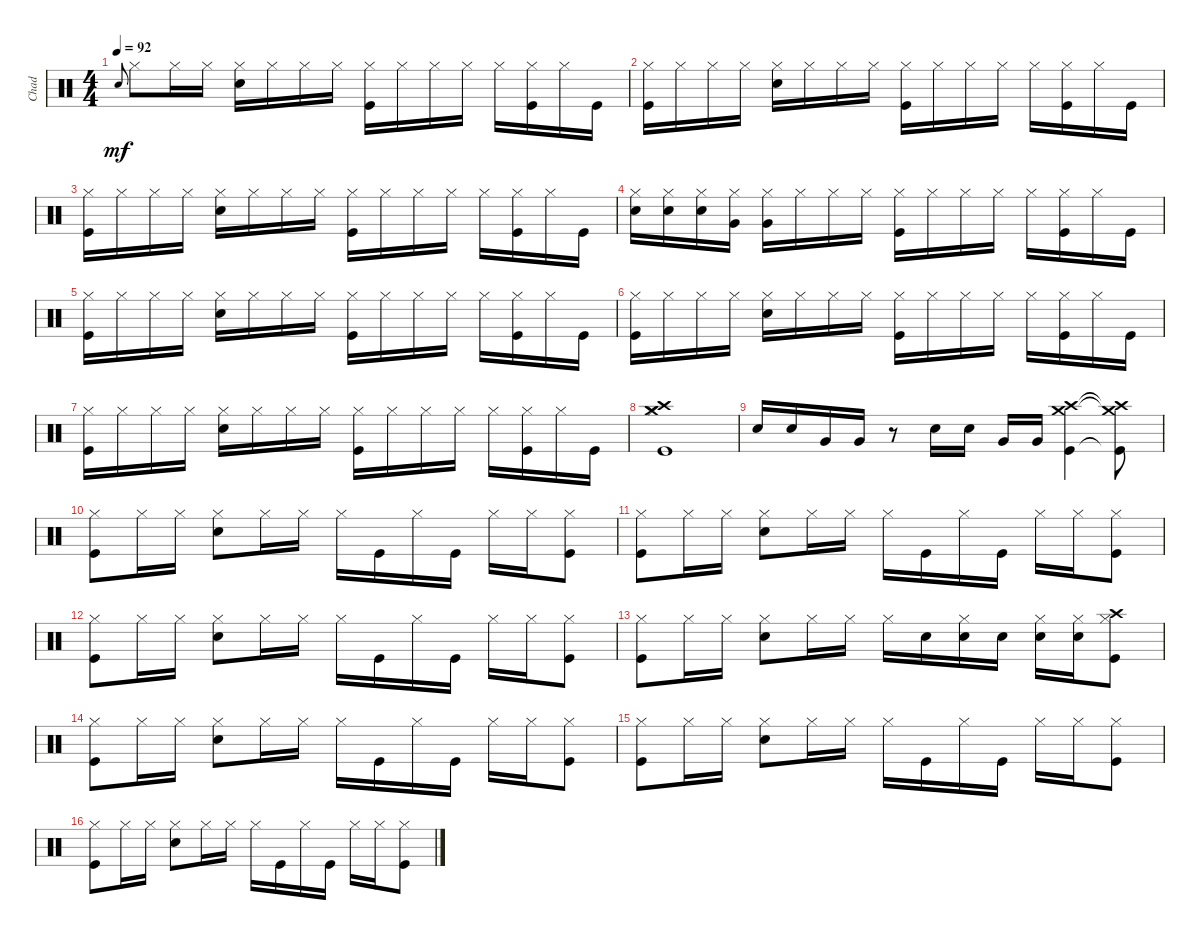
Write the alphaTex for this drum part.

\track ("Chad" "Chad") {instrument percussion}
\staff {score}
\articulation defaults
\ts (4 4)
\tempo 92
\clef neutral
\ks c "Snare (hit)".8{gr onbeat dy mf} "Hi-Hat (closed)".8 "Hi-Hat (closed)".16 "Hi-Hat (closed)".16
("Snare (hit) 2" "Hi-Hat (closed)").16 "Hi-Hat (closed)".16 "Hi-Hat (closed)".16 "Hi-Hat (closed)".16 ("Kick (hit)" "Hi-Hat (closed)").16 "Hi-Hat (closed)".16 "Hi-Hat (closed)".16 "Hi-Hat (closed)".16 "Hi-Hat (closed)".16 ("Kick (hit)" "Hi-Hat (closed)").16 "Hi-Hat (closed)".16 "Kick (hit)".16 |
("Kick (hit)" "Hi-Hat (closed)").16 "Hi-Hat (closed)".16 "Hi-Hat (closed)".16 "Hi-Hat (closed)".16 ("Snare (hit) 2" "Hi-Hat (closed)").16 "Hi-Hat (closed)".16 "Hi-Hat (closed)".16 "Hi-Hat (closed)".16 ("Kick (hit)" "Hi-Hat (closed)").16 "Hi-Hat (closed)".16 "Hi-Hat (closed)".16 "Hi-Hat (closed)".16 "Hi-Hat (closed)".16 ("Kick (hit)" "Hi-Hat (closed)").16 "Hi-Hat (closed)".16 "Kick (hit)".16 |
("Kick (hit)" "Hi-Hat (closed)").16 "Hi-Hat (closed)".16 "Hi-Hat (closed)".16 "Hi-Hat (closed)".16 ("Snare (hit) 2" "Hi-Hat (closed)").16 "Hi-Hat (closed)".16 "Hi-Hat (closed)".16 "Hi-Hat (closed)".16 ("Kick (hit)" "Hi-Hat (closed)").16 "Hi-Hat (closed)".16 "Hi-Hat (closed)".16 "Hi-Hat (closed)".16 "Hi-Hat (closed)".16 ("Kick (hit)" "Hi-Hat (closed)").16 "Hi-Hat (closed)".16 "Kick (hit)".16 |
("Hi-Hat (closed)" "Snare (hit) 2").16 ("Hi-Hat (closed)" "Snare (hit) 2").16 ("Hi-Hat (closed)" "Snare (hit) 2").16 ("Hi-Hat (closed)" "Very Low Tom (hit)").16 ("Hi-Hat (closed)" "Very Low Tom (hit)").16 "Hi-Hat (closed)".16 "Hi-Hat (closed)".16 "Hi-Hat (closed)".16 ("Kick (hit)" "Hi-Hat (closed)").16 "Hi-Hat (closed)".16 "Hi-Hat (closed)".16 "Hi-Hat (closed)".16 "Hi-Hat (closed)".16 ("Kick (hit)" "Hi-Hat (closed)").16 "Hi-Hat (closed)".16 "Kick (hit)".16 |
("Kick (hit)" "Hi-Hat (closed)").16 "Hi-Hat (closed)".16 "Hi-Hat (closed)".16 "Hi-Hat (closed)".16 ("Snare (hit) 2" "Hi-Hat (closed)").16 "Hi-Hat (closed)".16 "Hi-Hat (closed)".16 "Hi-Hat (closed)".16 ("Kick (hit)" "Hi-Hat (closed)").16 "Hi-Hat (closed)".16 "Hi-Hat (closed)".16 "Hi-Hat (closed)".16 "Hi-Hat (closed)".16 ("Kick (hit)" "Hi-Hat (closed)").16 "Hi-Hat (closed)".16 "Kick (hit)".16 |
("Kick (hit)" "Hi-Hat (closed)").16 "Hi-Hat (closed)".16 "Hi-Hat (closed)".16 "Hi-Hat (closed)".16 ("Snare (hit) 2" "Hi-Hat (closed)").16 "Hi-Hat (closed)".16 "Hi-Hat (closed)".16 "Hi-Hat (closed)".16 ("Kick (hit)" "Hi-Hat (closed)").16 "Hi-Hat (closed)".16 "Hi-Hat (closed)".16 "Hi-Hat (closed)".16 "Hi-Hat (closed)".16 ("Kick (hit)" "Hi-Hat (closed)").16 "Hi-Hat (closed)".16 "Kick (hit)".16 |
("Kick (hit)" "Hi-Hat (closed)").16 "Hi-Hat (closed)".16 "Hi-Hat (closed)".16 "Hi-Hat (closed)".16 ("Snare (hit) 2" "Hi-Hat (closed)").16 "Hi-Hat (closed)".16 "Hi-Hat (closed)".16 "Hi-Hat (closed)".16 ("Kick (hit)" "Hi-Hat (closed)").16 "Hi-Hat (closed)".16 "Hi-Hat (closed)".16 "Hi-Hat (closed)".16 "Hi-Hat (closed)".16 ("Kick (hit)" "Hi-Hat (closed)").16 "Hi-Hat (closed)".16 "Kick (hit)".16 |
("Kick (hit)" "Hi-Hat (closed)" "Crash high (hit)" "Crash medium (hit)").1 |
"Snare (hit) 2".16 "Snare (hit) 2".16 "Very Low Tom (hit)".16 "Very Low Tom (hit)".16 r.8 "Snare (hit) 2".16 "Snare (hit) 2".16 "Very Low Tom (hit)".16 "Very Low Tom (hit)".16 ("Kick (hit)" "Crash high (hit)" "Crash medium (hit)").4 ("Kick (hit)"{t} "Crash high (hit)"{t} "Crash medium (hit)"{t}).8 |
("Kick (hit)" "Hi-Hat (closed)").8 "Hi-Hat (closed)".16 "Hi-Hat (closed)".16 ("Snare (hit) 2" "Hi-Hat (closed)").8 "Hi-Hat (closed)".16 "Hi-Hat (closed)".16 "Hi-Hat (closed)".16 "Kick (hit)".16 "Hi-Hat (closed)".16 "Kick (hit)".16 "Hi-Hat (closed)".16 "Hi-Hat (closed)".16 ("Hi-Hat (closed)" "Kick (hit)").8 |
("Kick (hit)" "Hi-Hat (closed)").8 "Hi-Hat (closed)".16 "Hi-Hat (closed)".16 ("Snare (hit) 2" "Hi-Hat (closed)").8 "Hi-Hat (closed)".16 "Hi-Hat (closed)".16 "Hi-Hat (closed)".16 "Kick (hit)".16 "Hi-Hat (closed)".16 "Kick (hit)".16 "Hi-Hat (closed)".16 "Hi-Hat (closed)".16 ("Hi-Hat (closed)" "Kick (hit)").8 |
("Kick (hit)" "Hi-Hat (closed)").8 "Hi-Hat (closed)".16 "Hi-Hat (closed)".16 ("Snare (hit) 2" "Hi-Hat (closed)").8 "Hi-Hat (closed)".16 "Hi-Hat (closed)".16 "Hi-Hat (closed)".16 "Kick (hit)".16 "Hi-Hat (closed)".16 "Kick (hit)".16 "Hi-Hat (closed)".16 "Hi-Hat (closed)".16 ("Hi-Hat (closed)" "Kick (hit)").8 |
("Kick (hit)" "Hi-Hat (closed)").8 "Hi-Hat (closed)".16 "Hi-Hat (closed)".16 ("Snare (hit) 2" "Hi-Hat (closed)").8 "Hi-Hat (closed)".16 "Hi-Hat (closed)".16 "Hi-Hat (closed)".16 "Snare (hit) 2".16 ("Hi-Hat (closed)" "Snare (hit) 2").16 "Snare (hit) 2".16 ("Hi-Hat (closed)" "Snare (hit) 2").16 ("Hi-Hat (closed)" "Snare (hit) 2").16 ("Hi-Hat (closed)" "Kick (hit)" "Crash high (hit)").8 |
("Kick (hit)" "Hi-Hat (closed)").8 "Hi-Hat (closed)".16 "Hi-Hat (closed)".16 ("Snare (hit) 2" "Hi-Hat (closed)").8 "Hi-Hat (closed)".16 "Hi-Hat (closed)".16 "Hi-Hat (closed)".16 "Kick (hit)".16 "Hi-Hat (closed)".16 "Kick (hit)".16 "Hi-Hat (closed)".16 "Hi-Hat (closed)".16 ("Hi-Hat (closed)" "Kick (hit)").8 |
("Kick (hit)" "Hi-Hat (closed)").8 "Hi-Hat (closed)".16 "Hi-Hat (closed)".16 ("Snare (hit) 2" "Hi-Hat (closed)").8 "Hi-Hat (closed)".16 "Hi-Hat (closed)".16 "Hi-Hat (closed)".16 "Kick (hit)".16 "Hi-Hat (closed)".16 "Kick (hit)".16 "Hi-Hat (closed)".16 "Hi-Hat (closed)".16 ("Hi-Hat (closed)" "Kick (hit)").8 |
("Kick (hit)" "Hi-Hat (closed)").8 "Hi-Hat (closed)".16 "Hi-Hat (closed)".16 ("Snare (hit) 2" "Hi-Hat (closed)").8 "Hi-Hat (closed)".16 "Hi-Hat (closed)".16 "Hi-Hat (closed)".16 "Kick (hit)".16 "Hi-Hat (closed)".16 "Kick (hit)".16 "Hi-Hat (closed)".16 "Hi-Hat (closed)".16 ("Hi-Hat (closed)" "Kick (hit)").8
